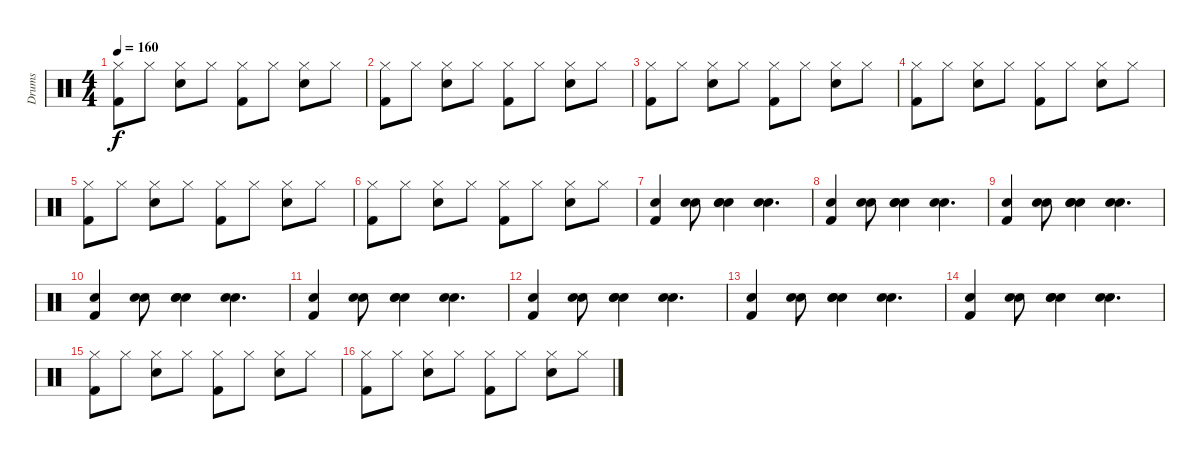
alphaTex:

\track ("Drums" "Drums") {instrument percussion}
\staff {score}
\articulation defaults
\ts (4 4)
\tempo 160
\clef neutral
\ks c
("Kick (hit) 2" "Hi-Hat (closed)").8{dy f} "Hi-Hat (closed)".8 ("Electric Snare (hit)" "Hi-Hat (closed)").8 "Hi-Hat (closed)".8 ("Kick (hit) 2" "Hi-Hat (closed)").8 "Hi-Hat (closed)".8 ("Electric Snare (hit)" "Hi-Hat (closed)").8 "Hi-Hat (closed)".8 |
("Kick (hit) 2" "Hi-Hat (closed)").8 "Hi-Hat (closed)".8 ("Electric Snare (hit)" "Hi-Hat (closed)").8 "Hi-Hat (closed)".8 ("Kick (hit) 2" "Hi-Hat (closed)").8 "Hi-Hat (closed)".8 ("Electric Snare (hit)" "Hi-Hat (closed)").8 "Hi-Hat (closed)".8 |
("Kick (hit) 2" "Hi-Hat (closed)").8 "Hi-Hat (closed)".8 ("Electric Snare (hit)" "Hi-Hat (closed)").8 "Hi-Hat (closed)".8 ("Kick (hit) 2" "Hi-Hat (closed)").8 "Hi-Hat (closed)".8 ("Electric Snare (hit)" "Hi-Hat (closed)").8 "Hi-Hat (closed)".8 |
("Kick (hit) 2" "Hi-Hat (closed)").8 "Hi-Hat (closed)".8 ("Electric Snare (hit)" "Hi-Hat (closed)").8 "Hi-Hat (closed)".8 ("Kick (hit) 2" "Hi-Hat (closed)").8 "Hi-Hat (closed)".8 ("Electric Snare (hit)" "Hi-Hat (closed)").8 "Hi-Hat (closed)".8 |
("Kick (hit) 2" "Hi-Hat (closed)").8 "Hi-Hat (closed)".8 ("Electric Snare (hit)" "Hi-Hat (closed)").8 "Hi-Hat (closed)".8 ("Kick (hit) 2" "Hi-Hat (closed)").8 "Hi-Hat (closed)".8 ("Electric Snare (hit)" "Hi-Hat (closed)").8 "Hi-Hat (closed)".8 |
("Kick (hit) 2" "Hi-Hat (closed)").8 "Hi-Hat (closed)".8 ("Electric Snare (hit)" "Hi-Hat (closed)").8 "Hi-Hat (closed)".8 ("Kick (hit) 2" "Hi-Hat (closed)").8 "Hi-Hat (closed)".8 ("Electric Snare (hit)" "Hi-Hat (closed)").8 "Hi-Hat (closed)".8 |
("Kick (hit) 2" "Electric Snare (hit)").4 ("Hand Clap (hit)" "Hand Clap (hit)").8 ("Hand Clap (hit)" "Hand Clap (hit)" "Electric Snare (hit)").4 ("Hand Clap (hit)" "Hand Clap (hit)").4{d} |
("Kick (hit) 2" "Electric Snare (hit)").4 ("Hand Clap (hit)" "Hand Clap (hit)").8 ("Hand Clap (hit)" "Hand Clap (hit)" "Electric Snare (hit)").4 ("Hand Clap (hit)" "Hand Clap (hit)").4{d} |
("Kick (hit) 2" "Electric Snare (hit)").4 ("Hand Clap (hit)" "Hand Clap (hit)").8 ("Hand Clap (hit)" "Hand Clap (hit)" "Electric Snare (hit)").4 ("Hand Clap (hit)" "Hand Clap (hit)").4{d} |
("Kick (hit) 2" "Electric Snare (hit)").4 ("Hand Clap (hit)" "Hand Clap (hit)").8 ("Hand Clap (hit)" "Hand Clap (hit)" "Electric Snare (hit)").4 ("Hand Clap (hit)" "Hand Clap (hit)").4{d} |
("Kick (hit) 2" "Electric Snare (hit)").4 ("Hand Clap (hit)" "Hand Clap (hit)").8 ("Hand Clap (hit)" "Hand Clap (hit)" "Electric Snare (hit)").4 ("Hand Clap (hit)" "Hand Clap (hit)").4{d} |
("Kick (hit) 2" "Electric Snare (hit)").4 ("Hand Clap (hit)" "Hand Clap (hit)").8 ("Hand Clap (hit)" "Hand Clap (hit)" "Electric Snare (hit)").4 ("Hand Clap (hit)" "Hand Clap (hit)").4{d} |
("Kick (hit) 2" "Electric Snare (hit)").4 ("Hand Clap (hit)" "Hand Clap (hit)").8 ("Hand Clap (hit)" "Hand Clap (hit)" "Electric Snare (hit)").4 ("Hand Clap (hit)" "Hand Clap (hit)").4{d} |
("Kick (hit) 2" "Electric Snare (hit)").4 ("Hand Clap (hit)" "Hand Clap (hit)").8 ("Hand Clap (hit)" "Hand Clap (hit)" "Electric Snare (hit)").4 ("Hand Clap (hit)" "Hand Clap (hit)").4{d} |
("Kick (hit) 2" "Hi-Hat (closed)").8 "Hi-Hat (closed)".8 ("Electric Snare (hit)" "Hi-Hat (closed)").8 "Hi-Hat (closed)".8 ("Kick (hit) 2" "Hi-Hat (closed)").8 "Hi-Hat (closed)".8 ("Electric Snare (hit)" "Hi-Hat (closed)").8 "Hi-Hat (closed)".8 |
("Kick (hit) 2" "Hi-Hat (closed)").8 "Hi-Hat (closed)".8 ("Electric Snare (hit)" "Hi-Hat (closed)").8 "Hi-Hat (closed)".8 ("Kick (hit) 2" "Hi-Hat (closed)").8 "Hi-Hat (closed)".8 ("Electric Snare (hit)" "Hi-Hat (closed)").8 "Hi-Hat (closed)".8
